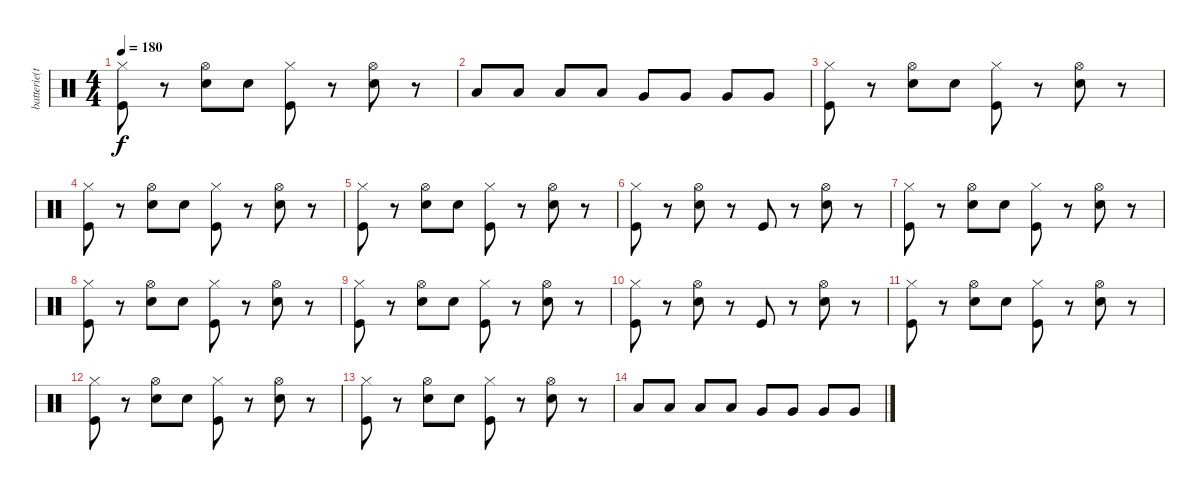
\track ("batterie(topper)" "batterie(t") {instrument percussion}
\staff {score}
\articulation defaults
\ts (4 4)
\tempo 180
\clef neutral
\ks c
("Hi-Hat (closed)" "Kick (hit)").8{dy f} r.8 ("Hi-Hat (open)" "Snare (hit) 2").8 "Snare (hit) 2".8 ("Hi-Hat (closed)" "Kick (hit)").8 r.8 ("Hi-Hat (open)" "Snare (hit) 2").8 r.8 |
"Low Tom (hit)".8 "Low Tom (hit)".8 "Low Tom (hit)".8 "Low Tom (hit)".8 "Very Low Tom (hit)".8 "Very Low Tom (hit)".8 "Very Low Tom (hit)".8 "Very Low Tom (hit)".8 |
("Hi-Hat (closed)" "Kick (hit)").8 r.8 ("Hi-Hat (open)" "Snare (hit) 2").8 "Snare (hit) 2".8 ("Hi-Hat (closed)" "Kick (hit)").8 r.8 ("Hi-Hat (open)" "Snare (hit) 2").8 r.8 |
("Hi-Hat (closed)" "Kick (hit)").8 r.8 ("Hi-Hat (open)" "Snare (hit) 2").8 "Snare (hit) 2".8 ("Hi-Hat (closed)" "Kick (hit)").8 r.8 ("Hi-Hat (open)" "Snare (hit) 2").8 r.8 |
("Hi-Hat (closed)" "Kick (hit)").8 r.8 ("Hi-Hat (open)" "Snare (hit) 2").8 "Snare (hit) 2".8 ("Hi-Hat (closed)" "Kick (hit)").8 r.8 ("Hi-Hat (open)" "Snare (hit) 2").8 r.8 |
("Hi-Hat (closed)" "Kick (hit)").8 r.8 ("Hi-Hat (open)" "Snare (hit) 2").8 r.8 "Kick (hit)".8 r.8 ("Hi-Hat (open)" "Snare (hit) 2").8 r.8 |
("Hi-Hat (closed)" "Kick (hit)").8 r.8 ("Hi-Hat (open)" "Snare (hit) 2").8 "Snare (hit) 2".8 ("Hi-Hat (closed)" "Kick (hit)").8 r.8 ("Hi-Hat (open)" "Snare (hit) 2").8 r.8 |
("Hi-Hat (closed)" "Kick (hit)").8 r.8 ("Hi-Hat (open)" "Snare (hit) 2").8 "Snare (hit) 2".8 ("Hi-Hat (closed)" "Kick (hit)").8 r.8 ("Hi-Hat (open)" "Snare (hit) 2").8 r.8 |
("Hi-Hat (closed)" "Kick (hit)").8 r.8 ("Hi-Hat (open)" "Snare (hit) 2").8 "Snare (hit) 2".8 ("Hi-Hat (closed)" "Kick (hit)").8 r.8 ("Hi-Hat (open)" "Snare (hit) 2").8 r.8 |
("Hi-Hat (closed)" "Kick (hit)").8 r.8 ("Hi-Hat (open)" "Snare (hit) 2").8 r.8 "Kick (hit)".8 r.8 ("Hi-Hat (open)" "Snare (hit) 2").8 r.8 |
("Hi-Hat (closed)" "Kick (hit)").8 r.8 ("Hi-Hat (open)" "Snare (hit) 2").8 "Snare (hit) 2".8 ("Hi-Hat (closed)" "Kick (hit)").8 r.8 ("Hi-Hat (open)" "Snare (hit) 2").8 r.8 |
("Hi-Hat (closed)" "Kick (hit)").8 r.8 ("Hi-Hat (open)" "Snare (hit) 2").8 "Snare (hit) 2".8 ("Hi-Hat (closed)" "Kick (hit)").8 r.8 ("Hi-Hat (open)" "Snare (hit) 2").8 r.8 |
("Hi-Hat (closed)" "Kick (hit)").8 r.8 ("Hi-Hat (open)" "Snare (hit) 2").8 "Snare (hit) 2".8 ("Hi-Hat (closed)" "Kick (hit)").8 r.8 ("Hi-Hat (open)" "Snare (hit) 2").8 r.8 |
"Low Tom (hit)".8 "Low Tom (hit)".8 "Low Tom (hit)".8 "Low Tom (hit)".8 "Very Low Tom (hit)".8 "Very Low Tom (hit)".8 "Very Low Tom (hit)".8 "Very Low Tom (hit)".8
